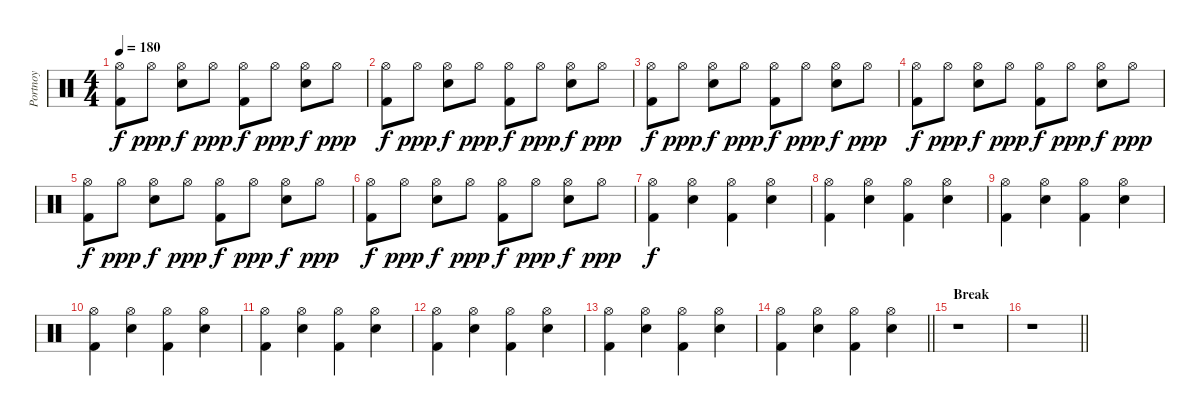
\track ("Portnoy" "Portnoy") {instrument percussion}
\staff {score}
\articulation defaults
\ts (4 4)
\tempo 180
\clef neutral
\ks c
("Hi-Hat (open)" "Kick (hit) 2").8{dy f} "Hi-Hat (open)".8{dy ppp} ("Hi-Hat (open)" "Electric Snare (hit)").8{dy f} "Hi-Hat (open)".8{dy ppp} ("Hi-Hat (open)" "Kick (hit) 2").8{dy f} "Hi-Hat (open)".8{dy ppp} ("Hi-Hat (open)" "Electric Snare (hit)").8{dy f} "Hi-Hat (open)".8{dy ppp} |
("Hi-Hat (open)" "Kick (hit) 2").8{dy f} "Hi-Hat (open)".8{dy ppp} ("Hi-Hat (open)" "Electric Snare (hit)").8{dy f} "Hi-Hat (open)".8{dy ppp} ("Hi-Hat (open)" "Kick (hit) 2").8{dy f} "Hi-Hat (open)".8{dy ppp} ("Hi-Hat (open)" "Electric Snare (hit)").8{dy f} "Hi-Hat (open)".8{dy ppp} |
("Hi-Hat (open)" "Kick (hit) 2").8{dy f} "Hi-Hat (open)".8{dy ppp} ("Hi-Hat (open)" "Electric Snare (hit)").8{dy f} "Hi-Hat (open)".8{dy ppp} ("Hi-Hat (open)" "Kick (hit) 2").8{dy f} "Hi-Hat (open)".8{dy ppp} ("Hi-Hat (open)" "Electric Snare (hit)").8{dy f} "Hi-Hat (open)".8{dy ppp} |
("Hi-Hat (open)" "Kick (hit) 2").8{dy f} "Hi-Hat (open)".8{dy ppp} ("Hi-Hat (open)" "Electric Snare (hit)").8{dy f} "Hi-Hat (open)".8{dy ppp} ("Hi-Hat (open)" "Kick (hit) 2").8{dy f} "Hi-Hat (open)".8{dy ppp} ("Hi-Hat (open)" "Electric Snare (hit)").8{dy f} "Hi-Hat (open)".8{dy ppp} |
("Hi-Hat (open)" "Kick (hit) 2").8{dy f} "Hi-Hat (open)".8{dy ppp} ("Hi-Hat (open)" "Electric Snare (hit)").8{dy f} "Hi-Hat (open)".8{dy ppp} ("Hi-Hat (open)" "Kick (hit) 2").8{dy f} "Hi-Hat (open)".8{dy ppp} ("Hi-Hat (open)" "Electric Snare (hit)").8{dy f} "Hi-Hat (open)".8{dy ppp} |
("Hi-Hat (open)" "Kick (hit) 2").8{dy f} "Hi-Hat (open)".8{dy ppp} ("Hi-Hat (open)" "Electric Snare (hit)").8{dy f} "Hi-Hat (open)".8{dy ppp} ("Hi-Hat (open)" "Kick (hit) 2").8{dy f} "Hi-Hat (open)".8{dy ppp} ("Hi-Hat (open)" "Electric Snare (hit)").8{dy f} "Hi-Hat (open)".8{dy ppp} |
("Hi-Hat (open)" "Kick (hit) 2").4{dy f} ("Hi-Hat (open)" "Electric Snare (hit)").4 ("Hi-Hat (open)" "Kick (hit) 2").4 ("Hi-Hat (open)" "Electric Snare (hit)").4 |
("Hi-Hat (open)" "Kick (hit) 2").4 ("Hi-Hat (open)" "Electric Snare (hit)").4 ("Hi-Hat (open)" "Kick (hit) 2").4 ("Hi-Hat (open)" "Electric Snare (hit)").4 |
("Hi-Hat (open)" "Kick (hit) 2").4 ("Hi-Hat (open)" "Electric Snare (hit)").4 ("Hi-Hat (open)" "Kick (hit) 2").4 ("Hi-Hat (open)" "Electric Snare (hit)").4 |
("Hi-Hat (open)" "Kick (hit) 2").4 ("Hi-Hat (open)" "Electric Snare (hit)").4 ("Hi-Hat (open)" "Kick (hit) 2").4 ("Hi-Hat (open)" "Electric Snare (hit)").4 |
("Hi-Hat (open)" "Kick (hit) 2").4 ("Hi-Hat (open)" "Electric Snare (hit)").4 ("Hi-Hat (open)" "Kick (hit) 2").4 ("Hi-Hat (open)" "Electric Snare (hit)").4 |
("Hi-Hat (open)" "Kick (hit) 2").4 ("Hi-Hat (open)" "Electric Snare (hit)").4 ("Hi-Hat (open)" "Kick (hit) 2").4 ("Hi-Hat (open)" "Electric Snare (hit)").4 |
("Hi-Hat (open)" "Kick (hit) 2").4 ("Hi-Hat (open)" "Electric Snare (hit)").4 ("Hi-Hat (open)" "Kick (hit) 2").4 ("Hi-Hat (open)" "Electric Snare (hit)").4 |
\barLineRight lightlight
("Hi-Hat (open)" "Kick (hit) 2").4 ("Hi-Hat (open)" "Electric Snare (hit)").4 ("Hi-Hat (open)" "Kick (hit) 2").4 ("Hi-Hat (open)" "Electric Snare (hit)").4 |
\section ("" "Break")
r.1 |
\barLineRight lightlight
r.1
